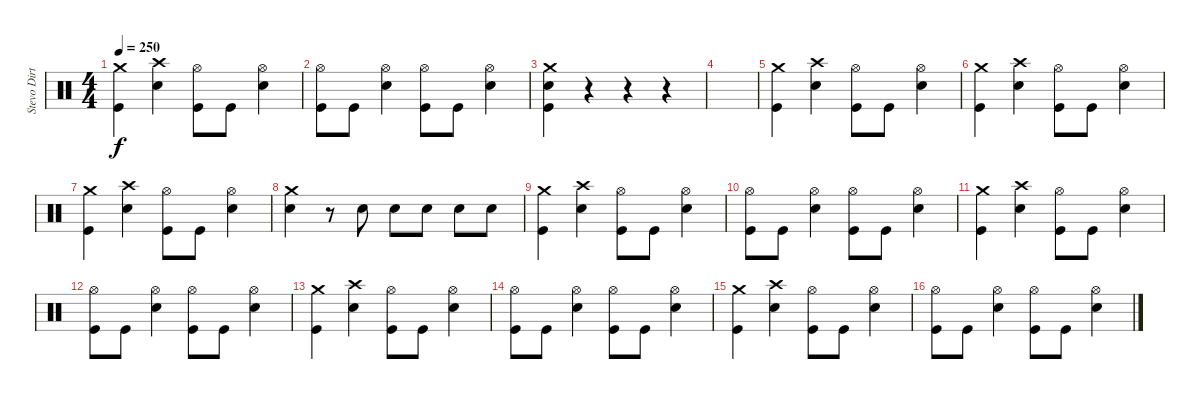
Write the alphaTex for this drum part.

\track ("Stevo Dirty Poo" "Stevo Dirt") {instrument percussion}
\staff {score}
\articulation defaults
\ts (4 4)
\tempo 250
\clef neutral
\ks c
("Crash medium (hit)" "Kick (hit)").4{dy f} ("Crash high (hit)" "Snare (hit) 2").4 ("Hi-Hat (open)" "Kick (hit)").8 "Kick (hit)".8 ("Hi-Hat (open)" "Snare (hit) 2").4 |
("Hi-Hat (open)" "Kick (hit)").8 "Kick (hit)".8 ("Hi-Hat (open)" "Snare (hit) 2").4 ("Hi-Hat (open)" "Kick (hit)").8 "Kick (hit)".8 ("Hi-Hat (open)" "Snare (hit) 2").4 |
("Crash medium (hit)" "Snare (hit) 2" "Kick (hit)").4 r.4 r.4 r.4 |
|
("Crash medium (hit)" "Kick (hit)").4 ("Crash high (hit)" "Snare (hit) 2").4 ("Hi-Hat (open)" "Kick (hit)").8 "Kick (hit)".8 ("Hi-Hat (open)" "Snare (hit) 2").4 |
("Crash medium (hit)" "Kick (hit)").4 ("Crash high (hit)" "Snare (hit) 2").4 ("Hi-Hat (open)" "Kick (hit)").8 "Kick (hit)".8 ("Hi-Hat (open)" "Snare (hit) 2").4 |
("Crash medium (hit)" "Kick (hit)").4 ("Crash high (hit)" "Snare (hit) 2").4 ("Hi-Hat (open)" "Kick (hit)").8 "Kick (hit)".8 ("Hi-Hat (open)" "Snare (hit) 2").4 |
("Crash medium (hit)" "Snare (hit) 2").4 r.8 "Snare (hit) 2".8 "Snare (hit) 2".8 "Snare (hit) 2".8 "Snare (hit) 2".8 "Snare (hit) 2".8 |
("Crash medium (hit)" "Kick (hit)").4 ("Crash high (hit)" "Snare (hit) 2").4 ("Hi-Hat (open)" "Kick (hit)").8 "Kick (hit)".8 ("Hi-Hat (open)" "Snare (hit) 2").4 |
("Hi-Hat (open)" "Kick (hit)").8 "Kick (hit)".8 ("Hi-Hat (open)" "Snare (hit) 2").4 ("Hi-Hat (open)" "Kick (hit)").8 "Kick (hit)".8 ("Hi-Hat (open)" "Snare (hit) 2").4 |
("Crash medium (hit)" "Kick (hit)").4 ("Crash high (hit)" "Snare (hit) 2").4 ("Hi-Hat (open)" "Kick (hit)").8 "Kick (hit)".8 ("Hi-Hat (open)" "Snare (hit) 2").4 |
("Hi-Hat (open)" "Kick (hit)").8 "Kick (hit)".8 ("Hi-Hat (open)" "Snare (hit) 2").4 ("Hi-Hat (open)" "Kick (hit)").8 "Kick (hit)".8 ("Hi-Hat (open)" "Snare (hit) 2").4 |
("Crash medium (hit)" "Kick (hit)").4 ("Crash high (hit)" "Snare (hit) 2").4 ("Hi-Hat (open)" "Kick (hit)").8 "Kick (hit)".8 ("Hi-Hat (open)" "Snare (hit) 2").4 |
("Hi-Hat (open)" "Kick (hit)").8 "Kick (hit)".8 ("Hi-Hat (open)" "Snare (hit) 2").4 ("Hi-Hat (open)" "Kick (hit)").8 "Kick (hit)".8 ("Hi-Hat (open)" "Snare (hit) 2").4 |
("Crash medium (hit)" "Kick (hit)").4 ("Crash high (hit)" "Snare (hit) 2").4 ("Hi-Hat (open)" "Kick (hit)").8 "Kick (hit)".8 ("Hi-Hat (open)" "Snare (hit) 2").4 |
("Hi-Hat (open)" "Kick (hit)").8 "Kick (hit)".8 ("Hi-Hat (open)" "Snare (hit) 2").4 ("Hi-Hat (open)" "Kick (hit)").8 "Kick (hit)".8 ("Hi-Hat (open)" "Snare (hit) 2").4
